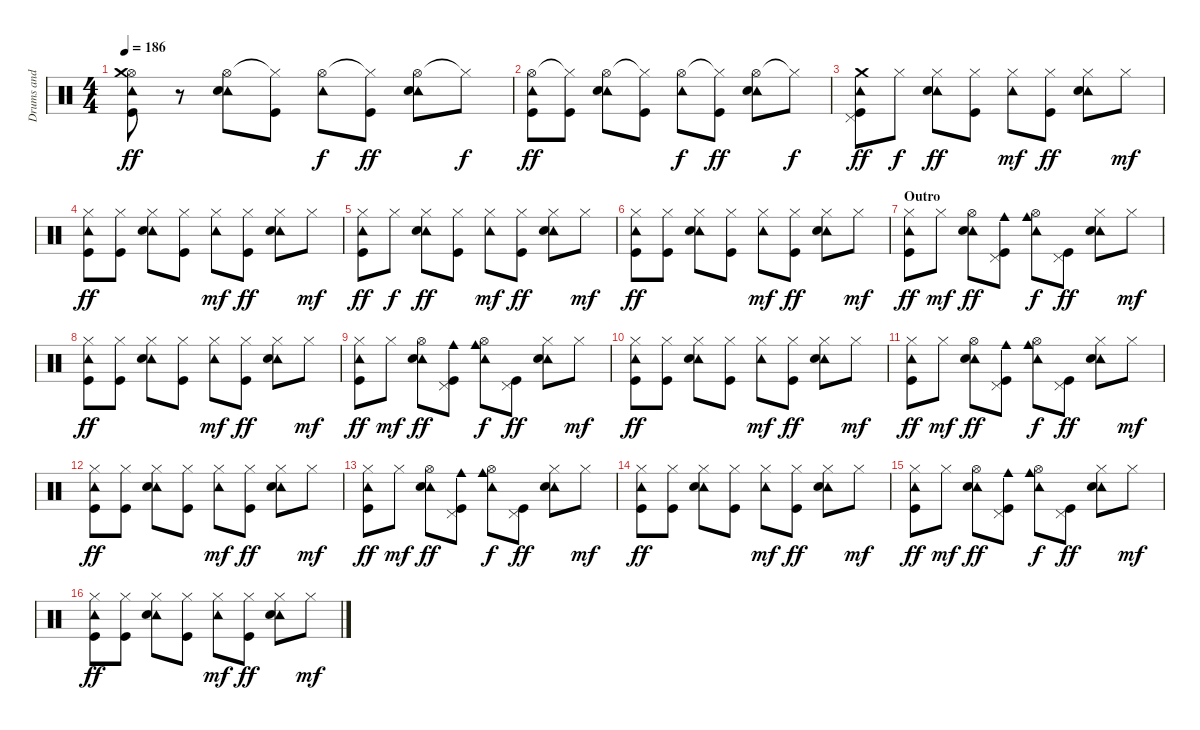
\track ("Drums and Percs" "Drums and ") {instrument percussion}
\staff {score}
\articulation defaults
\ts (4 4)
\tempo 186
\clef neutral
\ks c
("Hi-Hat (open)" "Tambourine (hit)" "Crash medium (hit)" "Kick (hit)").8{dy ff} r.8 ("Hi-Hat (open)" "Tambourine (hit)" "Electric Snare (hit)").8 ("Hi-Hat (closed)"{t} "Kick (hit)").8 ("Hi-Hat (open)" "Tambourine (hit)").8{dy f} ("Hi-Hat (closed)"{t} "Kick (hit)").8{dy ff} ("Hi-Hat (open)" "Tambourine (hit)" "Electric Snare (hit)").8 "Hi-Hat (closed)"{t}.8{dy f} |
("Hi-Hat (open)" "Tambourine (hit)" "Kick (hit)").8{dy ff} ("Hi-Hat (closed)"{t} "Kick (hit)").8 ("Hi-Hat (open)" "Tambourine (hit)" "Electric Snare (hit)").8 ("Hi-Hat (closed)"{t} "Kick (hit)").8 ("Hi-Hat (open)" "Tambourine (hit)").8{dy f} ("Hi-Hat (closed)"{t} "Kick (hit)").8{dy ff} ("Hi-Hat (open)" "Tambourine (hit)" "Electric Snare (hit)").8 "Hi-Hat (closed)"{t}.8{dy f} |
("Pedal Hi-Hat (hit)" "Tambourine (hit)" "Crash medium (hit)" "Kick (hit)").8{dy ff} "Hi-Hat (closed)".8{dy f} ("Hi-Hat (closed)" "Tambourine (hit)" "Electric Snare (hit)").8{dy ff} ("Hi-Hat (closed)" "Kick (hit)").8 ("Hi-Hat (closed)" "Tambourine (hit)").8{dy mf} ("Hi-Hat (closed)" "Kick (hit)").8{dy ff} ("Hi-Hat (closed)" "Tambourine (hit)" "Electric Snare (hit)").8 "Hi-Hat (closed)".8{dy mf} |
("Hi-Hat (closed)" "Tambourine (hit)" "Kick (hit)").8{dy ff} ("Hi-Hat (closed)" "Kick (hit)").8 ("Hi-Hat (closed)" "Tambourine (hit)" "Electric Snare (hit)").8 ("Hi-Hat (closed)" "Kick (hit)").8 ("Hi-Hat (closed)" "Tambourine (hit)").8{dy mf} ("Hi-Hat (closed)" "Kick (hit)").8{dy ff} ("Hi-Hat (closed)" "Tambourine (hit)" "Electric Snare (hit)").8 "Hi-Hat (closed)".8{dy mf} |
("Hi-Hat (closed)" "Tambourine (hit)" "Kick (hit)").8{dy ff} "Hi-Hat (closed)".8{dy f} ("Hi-Hat (closed)" "Tambourine (hit)" "Electric Snare (hit)").8{dy ff} ("Hi-Hat (closed)" "Kick (hit)").8 ("Hi-Hat (closed)" "Tambourine (hit)").8{dy mf} ("Hi-Hat (closed)" "Kick (hit)").8{dy ff} ("Hi-Hat (closed)" "Tambourine (hit)" "Electric Snare (hit)").8 "Hi-Hat (closed)".8{dy mf} |
("Hi-Hat (closed)" "Tambourine (hit)" "Kick (hit)").8{dy ff} ("Hi-Hat (closed)" "Kick (hit)").8 ("Hi-Hat (closed)" "Tambourine (hit)" "Electric Snare (hit)").8 ("Hi-Hat (closed)" "Kick (hit)").8 ("Hi-Hat (closed)" "Tambourine (hit)").8{dy mf} ("Hi-Hat (closed)" "Kick (hit)").8{dy ff} ("Hi-Hat (closed)" "Tambourine (hit)" "Electric Snare (hit)").8 "Hi-Hat (closed)".8{dy mf} |
\section ("" "Outro")
("Hi-Hat (closed)" "Tambourine (hit)" "Kick (hit)").8{dy ff} "Hi-Hat (closed)".8{dy mf} ("Hi-Hat (open)" "Tambourine (hit)" "Electric Snare (hit)").8{dy ff} ("Pedal Hi-Hat (hit)" "Cowbell medium (hit)" "Kick (hit)").8 ("Hi-Hat (open)" "Tambourine (hit)" "Cowbell medium (hit)").8{dy f} ("Pedal Hi-Hat (hit)" "Kick (hit)").8{dy ff} ("Hi-Hat (closed)" "Tambourine (hit)" "Electric Snare (hit)").8 "Hi-Hat (closed)".8{dy mf} |
("Hi-Hat (closed)" "Tambourine (hit)" "Kick (hit)").8{dy ff} ("Hi-Hat (closed)" "Kick (hit)").8 ("Hi-Hat (closed)" "Tambourine (hit)" "Electric Snare (hit)").8 ("Hi-Hat (closed)" "Kick (hit)").8 ("Hi-Hat (closed)" "Tambourine (hit)").8{dy mf} ("Hi-Hat (closed)" "Kick (hit)").8{dy ff} ("Hi-Hat (closed)" "Tambourine (hit)" "Electric Snare (hit)").8 "Hi-Hat (closed)".8{dy mf} |
("Hi-Hat (closed)" "Tambourine (hit)" "Kick (hit)").8{dy ff} "Hi-Hat (closed)".8{dy mf} ("Hi-Hat (open)" "Tambourine (hit)" "Electric Snare (hit)").8{dy ff} ("Pedal Hi-Hat (hit)" "Cowbell medium (hit)" "Kick (hit)").8 ("Hi-Hat (open)" "Tambourine (hit)" "Cowbell medium (hit)").8{dy f} ("Pedal Hi-Hat (hit)" "Kick (hit)").8{dy ff} ("Hi-Hat (closed)" "Tambourine (hit)" "Electric Snare (hit)").8 "Hi-Hat (closed)".8{dy mf} |
("Hi-Hat (closed)" "Tambourine (hit)" "Kick (hit)").8{dy ff} ("Hi-Hat (closed)" "Kick (hit)").8 ("Hi-Hat (closed)" "Tambourine (hit)" "Electric Snare (hit)").8 ("Hi-Hat (closed)" "Kick (hit)").8 ("Hi-Hat (closed)" "Tambourine (hit)").8{dy mf} ("Hi-Hat (closed)" "Kick (hit)").8{dy ff} ("Hi-Hat (closed)" "Tambourine (hit)" "Electric Snare (hit)").8 "Hi-Hat (closed)".8{dy mf} |
("Hi-Hat (closed)" "Tambourine (hit)" "Kick (hit)").8{dy ff} "Hi-Hat (closed)".8{dy mf} ("Hi-Hat (open)" "Tambourine (hit)" "Electric Snare (hit)").8{dy ff} ("Pedal Hi-Hat (hit)" "Cowbell medium (hit)" "Kick (hit)").8 ("Hi-Hat (open)" "Tambourine (hit)" "Cowbell medium (hit)").8{dy f} ("Pedal Hi-Hat (hit)" "Kick (hit)").8{dy ff} ("Hi-Hat (closed)" "Tambourine (hit)" "Electric Snare (hit)").8 "Hi-Hat (closed)".8{dy mf} |
("Hi-Hat (closed)" "Tambourine (hit)" "Kick (hit)").8{dy ff} ("Hi-Hat (closed)" "Kick (hit)").8 ("Hi-Hat (closed)" "Tambourine (hit)" "Electric Snare (hit)").8 ("Hi-Hat (closed)" "Kick (hit)").8 ("Hi-Hat (closed)" "Tambourine (hit)").8{dy mf} ("Hi-Hat (closed)" "Kick (hit)").8{dy ff} ("Hi-Hat (closed)" "Tambourine (hit)" "Electric Snare (hit)").8 "Hi-Hat (closed)".8{dy mf} |
("Hi-Hat (closed)" "Tambourine (hit)" "Kick (hit)").8{dy ff} "Hi-Hat (closed)".8{dy mf} ("Hi-Hat (open)" "Tambourine (hit)" "Electric Snare (hit)").8{dy ff} ("Pedal Hi-Hat (hit)" "Cowbell medium (hit)" "Kick (hit)").8 ("Hi-Hat (open)" "Tambourine (hit)" "Cowbell medium (hit)").8{dy f} ("Pedal Hi-Hat (hit)" "Kick (hit)").8{dy ff} ("Hi-Hat (closed)" "Tambourine (hit)" "Electric Snare (hit)").8 "Hi-Hat (closed)".8{dy mf} |
("Hi-Hat (closed)" "Tambourine (hit)" "Kick (hit)").8{dy ff} ("Hi-Hat (closed)" "Kick (hit)").8 ("Hi-Hat (closed)" "Tambourine (hit)" "Electric Snare (hit)").8 ("Hi-Hat (closed)" "Kick (hit)").8 ("Hi-Hat (closed)" "Tambourine (hit)").8{dy mf} ("Hi-Hat (closed)" "Kick (hit)").8{dy ff} ("Hi-Hat (closed)" "Tambourine (hit)" "Electric Snare (hit)").8 "Hi-Hat (closed)".8{dy mf} |
("Hi-Hat (closed)" "Tambourine (hit)" "Kick (hit)").8{dy ff} "Hi-Hat (closed)".8{dy mf} ("Hi-Hat (open)" "Tambourine (hit)" "Electric Snare (hit)").8{dy ff} ("Pedal Hi-Hat (hit)" "Cowbell medium (hit)" "Kick (hit)").8 ("Hi-Hat (open)" "Tambourine (hit)" "Cowbell medium (hit)").8{dy f} ("Pedal Hi-Hat (hit)" "Kick (hit)").8{dy ff} ("Hi-Hat (closed)" "Tambourine (hit)" "Electric Snare (hit)").8 "Hi-Hat (closed)".8{dy mf} |
("Hi-Hat (closed)" "Tambourine (hit)" "Kick (hit)").8{dy ff} ("Hi-Hat (closed)" "Kick (hit)").8 ("Hi-Hat (closed)" "Tambourine (hit)" "Electric Snare (hit)").8 ("Hi-Hat (closed)" "Kick (hit)").8 ("Hi-Hat (closed)" "Tambourine (hit)").8{dy mf} ("Hi-Hat (closed)" "Kick (hit)").8{dy ff} ("Hi-Hat (closed)" "Tambourine (hit)" "Electric Snare (hit)").8 "Hi-Hat (closed)".8{dy mf}
